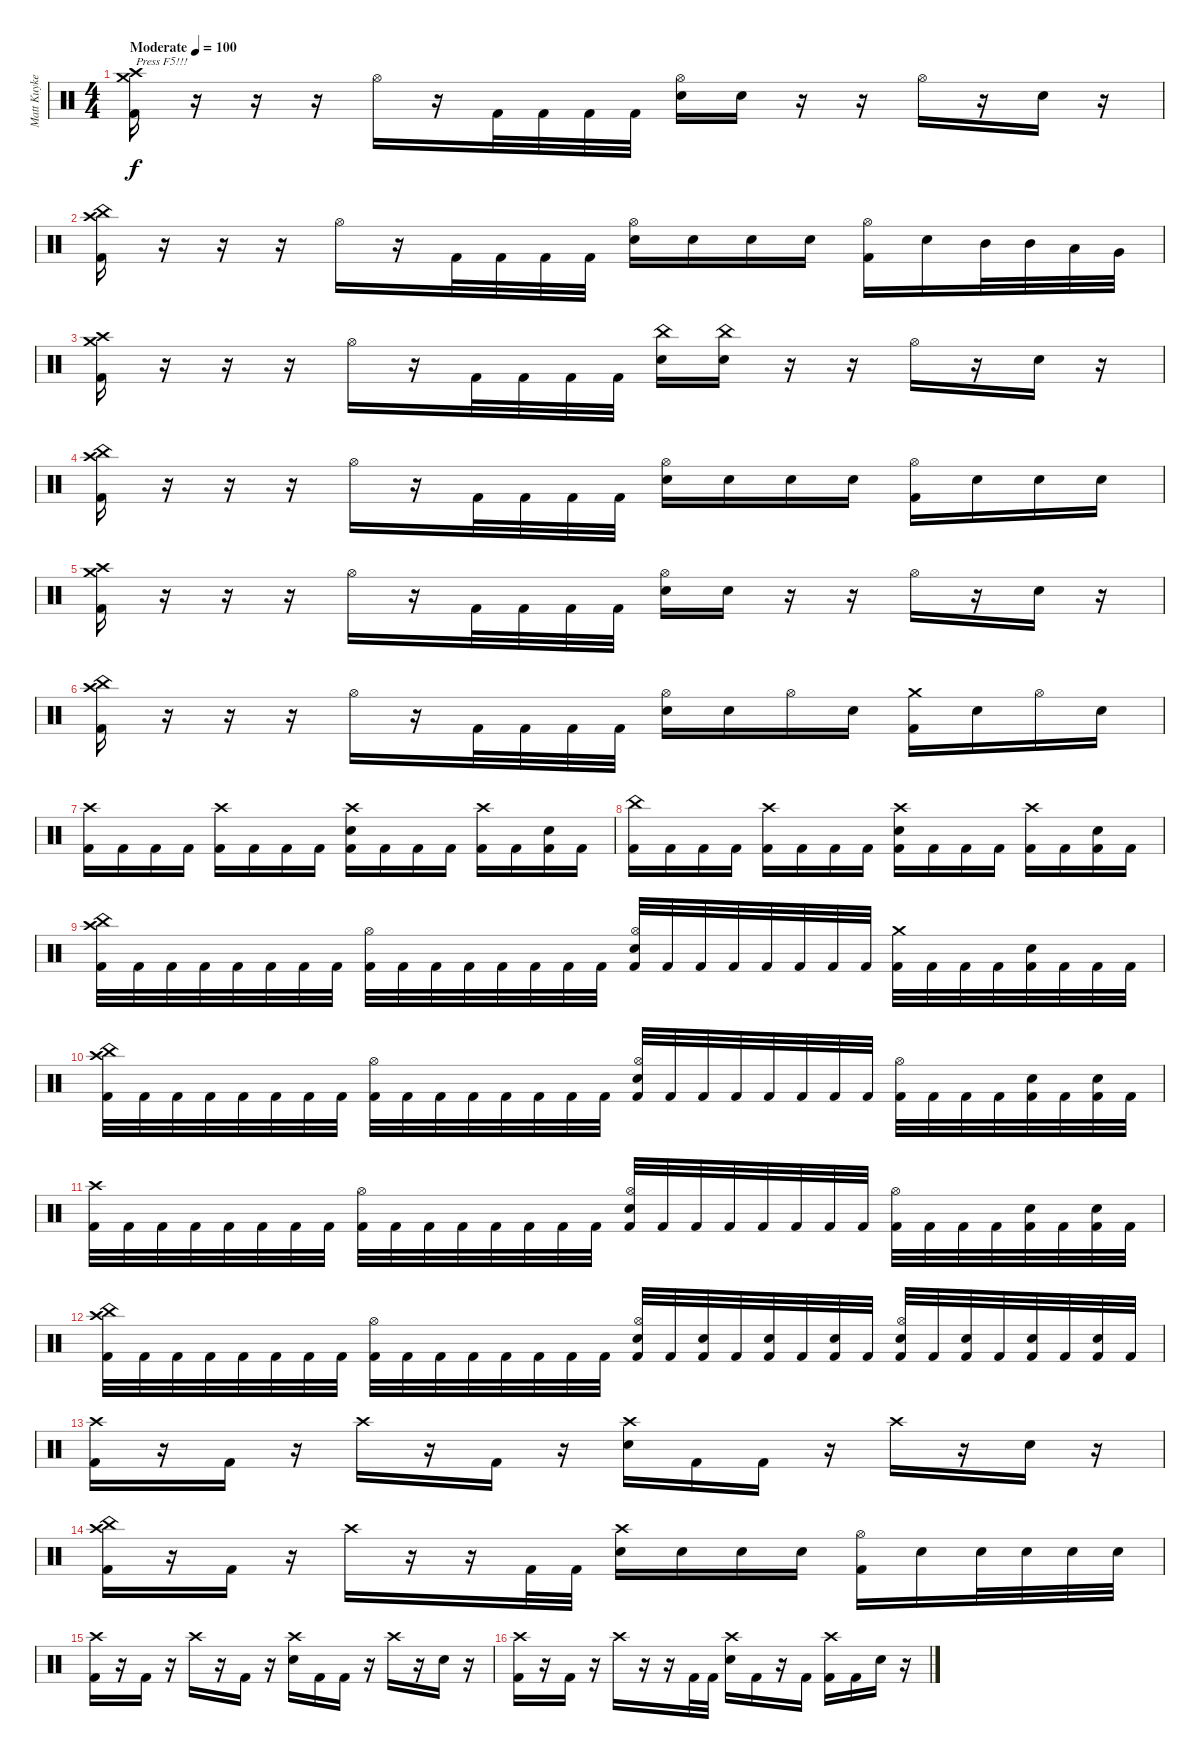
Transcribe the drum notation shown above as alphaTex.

\track ("Matt Kuykendall " "Matt Kuyke") {instrument percussion}
\staff {score}
\articulation defaults
\ts (4 4)
\tempo (100 "Moderate")
\clef neutral
\ks c
("Crash high (hit)" "Crash medium (hit)" "Kick (hit) 2").16{txt "Press F5!!!" dy f} r.16 r.16 r.16 "Hi-Hat (open)".16 r.16 "Kick (hit) 2".32 "Kick (hit) 2".32 "Kick (hit) 2".32 "Kick (hit) 2".32 ("Hi-Hat (open)" "Snare (hit) 2").16 "Snare (hit) 2".16 r.16 r.16 "Hi-Hat (open)".16 r.16 "Snare (hit) 2".16 r.16 |
("Crash high (hit)" "China (hit)" "Kick (hit) 2").16 r.16 r.16 r.16 "Hi-Hat (open)".16 r.16 "Kick (hit) 2".32 "Kick (hit) 2".32 "Kick (hit) 2".32 "Kick (hit) 2".32 ("Hi-Hat (open)" "Snare (hit) 2").16 "Snare (hit) 2".16 "Snare (hit) 2".16 "Snare (hit) 2".16 ("Hi-Hat (open)" "Kick (hit) 2").16 "Snare (hit) 2".16 "Mid Tom (hit)".32 "Mid Tom (hit)".32 "Low Tom (hit)".32 "Very Low Tom (hit)".32 |
("Crash high (hit)" "Crash medium (hit)" "Kick (hit) 2").16 r.16 r.16 r.16 "Hi-Hat (open)".16 r.16 "Kick (hit) 2".32 "Kick (hit) 2".32 "Kick (hit) 2".32 "Kick (hit) 2".32 ("China (hit)" "Snare (hit) 2").16 ("China (hit)" "Snare (hit) 2").16 r.16 r.16 "Hi-Hat (open)".16 r.16 "Snare (hit) 2".16 r.16 |
("Crash high (hit)" "China (hit)" "Kick (hit) 2").16 r.16 r.16 r.16 "Hi-Hat (open)".16 r.16 "Kick (hit) 2".32 "Kick (hit) 2".32 "Kick (hit) 2".32 "Kick (hit) 2".32 ("Hi-Hat (open)" "Snare (hit) 2").16 "Snare (hit) 2".16 "Snare (hit) 2".16 "Snare (hit) 2".16 ("Hi-Hat (open)" "Kick (hit) 2").16 "Snare (hit) 2".16 "Snare (hit) 2".16 "Snare (hit) 2".16 |
("Crash high (hit)" "Crash medium (hit)" "Kick (hit) 2").16 r.16 r.16 r.16 "Hi-Hat (open)".16 r.16 "Kick (hit) 2".32 "Kick (hit) 2".32 "Kick (hit) 2".32 "Kick (hit) 2".32 ("Hi-Hat (open)" "Snare (hit) 2").16 "Snare (hit) 2".16 r.16 r.16 "Hi-Hat (open)".16 r.16 "Snare (hit) 2".16 r.16 |
("Crash high (hit)" "China (hit)" "Kick (hit) 2").16 r.16 r.16 r.16 "Hi-Hat (open)".16 r.16 "Kick (hit) 2".32 "Kick (hit) 2".32 "Kick (hit) 2".32 "Kick (hit) 2".32 ("Hi-Hat (open)" "Snare (hit) 2").16 "Snare (hit) 2".16 "Hi-Hat (open)".16 "Snare (hit) 2".16 ("Crash medium (hit)" "Kick (hit) 2").16 "Snare (hit) 2".16 "Hi-Hat (open)".16 "Snare (hit) 2".16 |
("Crash high (hit)" "Kick (hit) 2").16 "Kick (hit) 2".16 "Kick (hit) 2".16 "Kick (hit) 2".16 ("Crash high (hit)" "Kick (hit) 2").16 "Kick (hit) 2".16 "Kick (hit) 2".16 "Kick (hit) 2".16 ("Crash high (hit)" "Snare (hit) 2" "Kick (hit) 2").16 "Kick (hit) 2".16 "Kick (hit) 2".16 "Kick (hit) 2".16 ("Crash high (hit)" "Kick (hit) 2").16 "Kick (hit) 2".16 ("Snare (hit) 2" "Kick (hit) 2").16 "Kick (hit) 2".16 |
("China (hit)" "Kick (hit) 2").16 "Kick (hit) 2".16 "Kick (hit) 2".16 "Kick (hit) 2".16 ("Crash high (hit)" "Kick (hit) 2").16 "Kick (hit) 2".16 "Kick (hit) 2".16 "Kick (hit) 2".16 ("Crash high (hit)" "Snare (hit) 2" "Kick (hit) 2").16 "Kick (hit) 2".16 "Kick (hit) 2".16 "Kick (hit) 2".16 ("Crash high (hit)" "Kick (hit) 2").16 "Kick (hit) 2".16 ("Snare (hit) 2" "Kick (hit) 2").16 "Kick (hit) 2".16 |
("China (hit)" "Crash high (hit)" "Kick (hit) 2").32 "Kick (hit) 2".32 "Kick (hit) 2".32 "Kick (hit) 2".32 "Kick (hit) 2".32 "Kick (hit) 2".32 "Kick (hit) 2".32 "Kick (hit) 2".32 ("Hi-Hat (open)" "Kick (hit) 2").32 "Kick (hit) 2".32 "Kick (hit) 2".32 "Kick (hit) 2".32 "Kick (hit) 2".32 "Kick (hit) 2".32 "Kick (hit) 2".32 "Kick (hit) 2".32 ("Hi-Hat (open)" "Snare (hit) 2" "Kick (hit) 2").32 "Kick (hit) 2".32 "Kick (hit) 2".32 "Kick (hit) 2".32 "Kick (hit) 2".32 "Kick (hit) 2".32 "Kick (hit) 2".32 "Kick (hit) 2".32 ("Crash medium (hit)" "Kick (hit) 2").32 "Kick (hit) 2".32 "Kick (hit) 2".32 "Kick (hit) 2".32 ("Snare (hit) 2" "Kick (hit) 2").32 "Kick (hit) 2".32 "Kick (hit) 2".32 "Kick (hit) 2".32 |
("China (hit)" "Crash high (hit)" "Kick (hit) 2").32 "Kick (hit) 2".32 "Kick (hit) 2".32 "Kick (hit) 2".32 "Kick (hit) 2".32 "Kick (hit) 2".32 "Kick (hit) 2".32 "Kick (hit) 2".32 ("Hi-Hat (open)" "Kick (hit) 2").32 "Kick (hit) 2".32 "Kick (hit) 2".32 "Kick (hit) 2".32 "Kick (hit) 2".32 "Kick (hit) 2".32 "Kick (hit) 2".32 "Kick (hit) 2".32 ("Hi-Hat (open)" "Snare (hit) 2" "Kick (hit) 2").32 "Kick (hit) 2".32 "Kick (hit) 2".32 "Kick (hit) 2".32 "Kick (hit) 2".32 "Kick (hit) 2".32 "Kick (hit) 2".32 "Kick (hit) 2".32 ("Hi-Hat (open)" "Kick (hit) 2").32 "Kick (hit) 2".32 "Kick (hit) 2".32 "Kick (hit) 2".32 ("Snare (hit) 2" "Kick (hit) 2").32 "Kick (hit) 2".32 ("Snare (hit) 2" "Kick (hit) 2").32 "Kick (hit) 2".32 |
("Crash high (hit)" "Kick (hit) 2").32 "Kick (hit) 2".32 "Kick (hit) 2".32 "Kick (hit) 2".32 "Kick (hit) 2".32 "Kick (hit) 2".32 "Kick (hit) 2".32 "Kick (hit) 2".32 ("Hi-Hat (open)" "Kick (hit) 2").32 "Kick (hit) 2".32 "Kick (hit) 2".32 "Kick (hit) 2".32 "Kick (hit) 2".32 "Kick (hit) 2".32 "Kick (hit) 2".32 "Kick (hit) 2".32 ("Hi-Hat (open)" "Snare (hit) 2" "Kick (hit) 2").32 "Kick (hit) 2".32 "Kick (hit) 2".32 "Kick (hit) 2".32 "Kick (hit) 2".32 "Kick (hit) 2".32 "Kick (hit) 2".32 "Kick (hit) 2".32 ("Hi-Hat (open)" "Kick (hit) 2").32 "Kick (hit) 2".32 "Kick (hit) 2".32 "Kick (hit) 2".32 ("Snare (hit) 2" "Kick (hit) 2").32 "Kick (hit) 2".32 ("Snare (hit) 2" "Kick (hit) 2").32 "Kick (hit) 2".32 |
("Crash high (hit)" "China (hit)" "Kick (hit) 2").32 "Kick (hit) 2".32 "Kick (hit) 2".32 "Kick (hit) 2".32 "Kick (hit) 2".32 "Kick (hit) 2".32 "Kick (hit) 2".32 "Kick (hit) 2".32 ("Hi-Hat (open)" "Kick (hit) 2").32 "Kick (hit) 2".32 "Kick (hit) 2".32 "Kick (hit) 2".32 "Kick (hit) 2".32 "Kick (hit) 2".32 "Kick (hit) 2".32 "Kick (hit) 2".32 ("Hi-Hat (open)" "Snare (hit) 2" "Kick (hit) 2").32 "Kick (hit) 2".32 ("Snare (hit) 2" "Kick (hit) 2").32 "Kick (hit) 2".32 ("Snare (hit) 2" "Kick (hit) 2").32 "Kick (hit) 2".32 ("Snare (hit) 2" "Kick (hit) 2").32 "Kick (hit) 2".32 ("Hi-Hat (open)" "Snare (hit) 2" "Kick (hit) 2").32 "Kick (hit) 2".32 ("Snare (hit) 2" "Kick (hit) 2").32 "Kick (hit) 2".32 ("Snare (hit) 2" "Kick (hit) 2").32 "Kick (hit) 2".32 ("Snare (hit) 2" "Kick (hit) 2").32 "Kick (hit) 2".32 |
("Crash high (hit)" "Kick (hit) 2").16 r.16 "Kick (hit) 2".16 r.16 "Crash high (hit)".16 r.16 "Kick (hit) 2".16 r.16 ("Crash high (hit)" "Snare (hit) 2").16 "Kick (hit) 2".16 "Kick (hit) 2".16 r.16 "Crash high (hit)".16 r.16 "Snare (hit) 2".16 r.16 |
("Crash high (hit)" "China (hit)" "Kick (hit) 2").16 r.16 "Kick (hit) 2".16 r.16 "Crash high (hit)".16 r.16 r.16 "Kick (hit) 2".32 "Kick (hit) 2".32 ("Crash high (hit)" "Snare (hit) 2").16 "Snare (hit) 2".16 "Snare (hit) 2".16 "Snare (hit) 2".16 ("Hi-Hat (open)" "Kick (hit) 2").16 "Snare (hit) 2".16 "Snare (hit) 2".32 "Snare (hit) 2".32 "Snare (hit) 2".32 "Snare (hit) 2".32 |
("Crash high (hit)" "Kick (hit) 2").16 r.16 "Kick (hit) 2".16 r.16 "Crash high (hit)".16 r.16 "Kick (hit) 2".16 r.16 ("Crash high (hit)" "Snare (hit) 2").16 "Kick (hit) 2".16 "Kick (hit) 2".16 r.16 "Crash high (hit)".16 r.16 "Snare (hit) 2".16 r.16 |
("Crash high (hit)" "Kick (hit) 2").16 r.16 "Kick (hit) 2".16 r.16 "Crash high (hit)".16 r.16 r.16 "Kick (hit) 2".32 "Kick (hit) 2".32 ("Crash high (hit)" "Snare (hit) 2").16 "Kick (hit) 2".16 r.16 "Kick (hit) 2".16 ("Crash high (hit)" "Kick (hit) 2").16 "Kick (hit) 2".16 "Snare (hit) 2".16 r.16
